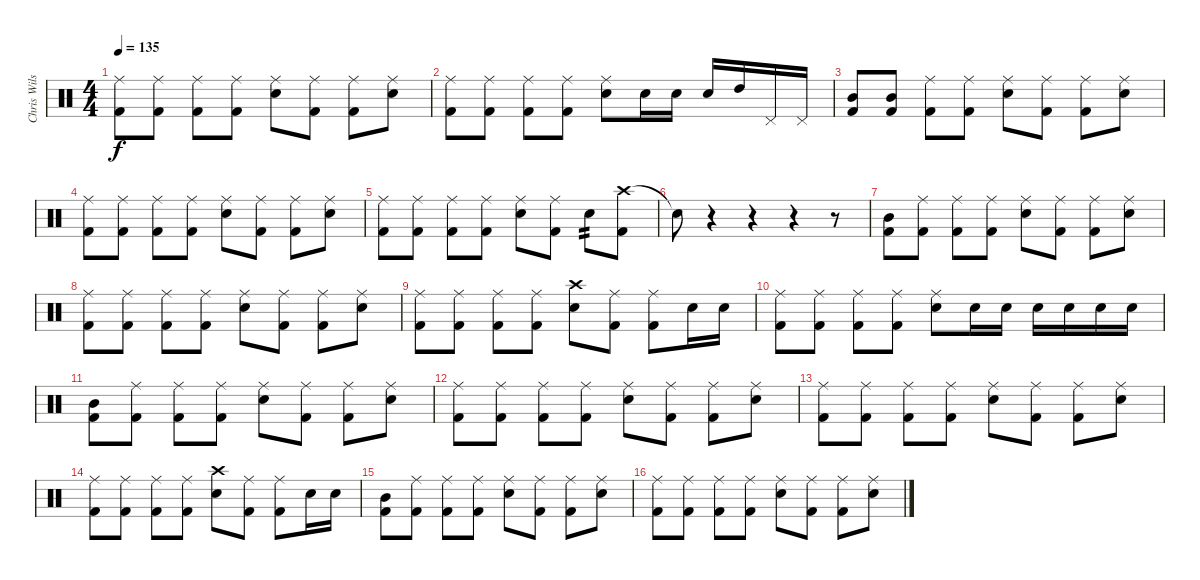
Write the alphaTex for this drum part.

\track ("Chris Wilson - Drums" "Chris Wils") {instrument percussion}
\staff {score}
\articulation defaults
\ts (4 4)
\tempo 135
\clef neutral
\ks c
("Ride (middle)" "Kick (hit) 2").8{dy f} ("Ride (middle)" "Kick (hit) 2").8 ("Ride (middle)" "Kick (hit) 2").8 ("Ride (middle)" "Kick (hit) 2").8 ("Ride (middle)" "Snare (hit) 2").8 ("Ride (middle)" "Kick (hit) 2").8 ("Ride (middle)" "Kick (hit) 2").8 ("Ride (middle)" "Snare (hit) 2").8 |
("Ride (middle)" "Kick (hit) 2").8 ("Ride (middle)" "Kick (hit) 2").8 ("Ride (middle)" "Kick (hit) 2").8 ("Ride (middle)" "Kick (hit) 2").8 ("Ride (middle)" "Snare (hit) 2").8 "Snare (hit) 2".16 "Snare (hit) 2".16 "Snare (hit) 2".16 "High Tom (hit)".16 "Pedal Hi-Hat (hit)".16 "Pedal Hi-Hat (hit)".16 |
("Mid Tom (hit)" "Kick (hit) 2").8 ("Mid Tom (hit)" "Kick (hit) 2").8 ("Ride (middle)" "Kick (hit) 2").8 ("Ride (middle)" "Kick (hit) 2").8 ("Ride (middle)" "Snare (hit) 2").8 ("Ride (middle)" "Kick (hit) 2").8 ("Ride (middle)" "Kick (hit) 2").8 ("Ride (middle)" "Snare (hit) 2").8 |
("Ride (middle)" "Kick (hit) 2").8 ("Ride (middle)" "Kick (hit) 2").8 ("Ride (middle)" "Kick (hit) 2").8 ("Ride (middle)" "Kick (hit) 2").8 ("Ride (middle)" "Snare (hit) 2").8 ("Ride (middle)" "Kick (hit) 2").8 ("Ride (middle)" "Kick (hit) 2").8 ("Ride (middle)" "Snare (hit) 2").8 |
("Ride (middle)" "Kick (hit) 2").8 ("Ride (middle)" "Kick (hit) 2").8 ("Ride (middle)" "Kick (hit) 2").8 ("Ride (middle)" "Kick (hit) 2").8 ("Ride (middle)" "Snare (hit) 2").8 ("Ride (middle)" "Kick (hit) 2").8 "Snare (hit) 2".8{tp 2} ("Crash high (hit)" "Kick (hit) 2").8 |
"Snare (hit)"{t}.8 r.4 r.4 r.4 r.8 |
("Mid Tom (hit)" "Kick (hit) 2").8 ("Ride (middle)" "Kick (hit) 2").8 ("Ride (middle)" "Kick (hit) 2").8 ("Ride (middle)" "Kick (hit) 2").8 ("Ride (middle)" "Snare (hit) 2").8 ("Ride (middle)" "Kick (hit) 2").8 ("Ride (middle)" "Kick (hit) 2").8 ("Ride (middle)" "Snare (hit) 2").8 |
("Ride (middle)" "Kick (hit) 2").8 ("Ride (middle)" "Kick (hit) 2").8 ("Ride (middle)" "Kick (hit) 2").8 ("Ride (middle)" "Kick (hit) 2").8 ("Ride (middle)" "Snare (hit) 2").8 ("Ride (middle)" "Kick (hit) 2").8 ("Ride (middle)" "Kick (hit) 2").8 ("Ride (middle)" "Snare (hit) 2").8 |
("Ride (middle)" "Kick (hit) 2").8 ("Ride (middle)" "Kick (hit) 2").8 ("Ride (middle)" "Kick (hit) 2").8 ("Ride (middle)" "Kick (hit) 2").8 ("Crash high (hit)" "Snare (hit) 2").8 ("Ride (middle)" "Kick (hit) 2").8 ("Ride (middle)" "Kick (hit) 2").8 "Snare (hit) 2".16 "Snare (hit) 2".16 |
("Ride (middle)" "Kick (hit) 2").8 ("Ride (middle)" "Kick (hit) 2").8 ("Ride (middle)" "Kick (hit) 2").8 ("Ride (middle)" "Kick (hit) 2").8 ("Ride (middle)" "Snare (hit) 2").8 "Snare (hit) 2".16 "Snare (hit) 2".16 "Snare (hit) 2".16 "Snare (hit) 2".16 "Snare (hit) 2".16 "Snare (hit) 2".16 |
("Mid Tom (hit)" "Kick (hit) 2").8 ("Ride (middle)" "Kick (hit) 2").8 ("Ride (middle)" "Kick (hit) 2").8 ("Ride (middle)" "Kick (hit) 2").8 ("Ride (middle)" "Snare (hit) 2").8 ("Ride (middle)" "Kick (hit) 2").8 ("Ride (middle)" "Kick (hit) 2").8 ("Ride (middle)" "Snare (hit) 2").8 |
("Ride (middle)" "Kick (hit) 2").8 ("Ride (middle)" "Kick (hit) 2").8 ("Ride (middle)" "Kick (hit) 2").8 ("Ride (middle)" "Kick (hit) 2").8 ("Ride (middle)" "Snare (hit) 2").8 ("Ride (middle)" "Kick (hit) 2").8 ("Ride (middle)" "Kick (hit) 2").8 ("Ride (middle)" "Snare (hit) 2").8 |
("Ride (middle)" "Kick (hit) 2").8 ("Ride (middle)" "Kick (hit) 2").8 ("Ride (middle)" "Kick (hit) 2").8 ("Ride (middle)" "Kick (hit) 2").8 ("Ride (middle)" "Snare (hit) 2").8 ("Ride (middle)" "Kick (hit) 2").8 ("Ride (middle)" "Kick (hit) 2").8 ("Ride (middle)" "Snare (hit) 2").8 |
("Ride (middle)" "Kick (hit) 2").8 ("Ride (middle)" "Kick (hit) 2").8 ("Ride (middle)" "Kick (hit) 2").8 ("Ride (middle)" "Kick (hit) 2").8 ("Crash high (hit)" "Snare (hit) 2").8 ("Ride (middle)" "Kick (hit) 2").8 ("Ride (middle)" "Kick (hit) 2").8 "Snare (hit) 2".16 "Snare (hit) 2".16 |
("Mid Tom (hit)" "Kick (hit) 2").8 ("Ride (middle)" "Kick (hit) 2").8 ("Ride (middle)" "Kick (hit) 2").8 ("Ride (middle)" "Kick (hit) 2").8 ("Ride (middle)" "Snare (hit) 2").8 ("Ride (middle)" "Kick (hit) 2").8 ("Ride (middle)" "Kick (hit) 2").8 ("Ride (middle)" "Snare (hit) 2").8 |
("Ride (middle)" "Kick (hit) 2").8 ("Ride (middle)" "Kick (hit) 2").8 ("Ride (middle)" "Kick (hit) 2").8 ("Ride (middle)" "Kick (hit) 2").8 ("Ride (middle)" "Snare (hit) 2").8 ("Ride (middle)" "Kick (hit) 2").8 ("Ride (middle)" "Kick (hit) 2").8 ("Ride (middle)" "Snare (hit) 2").8
